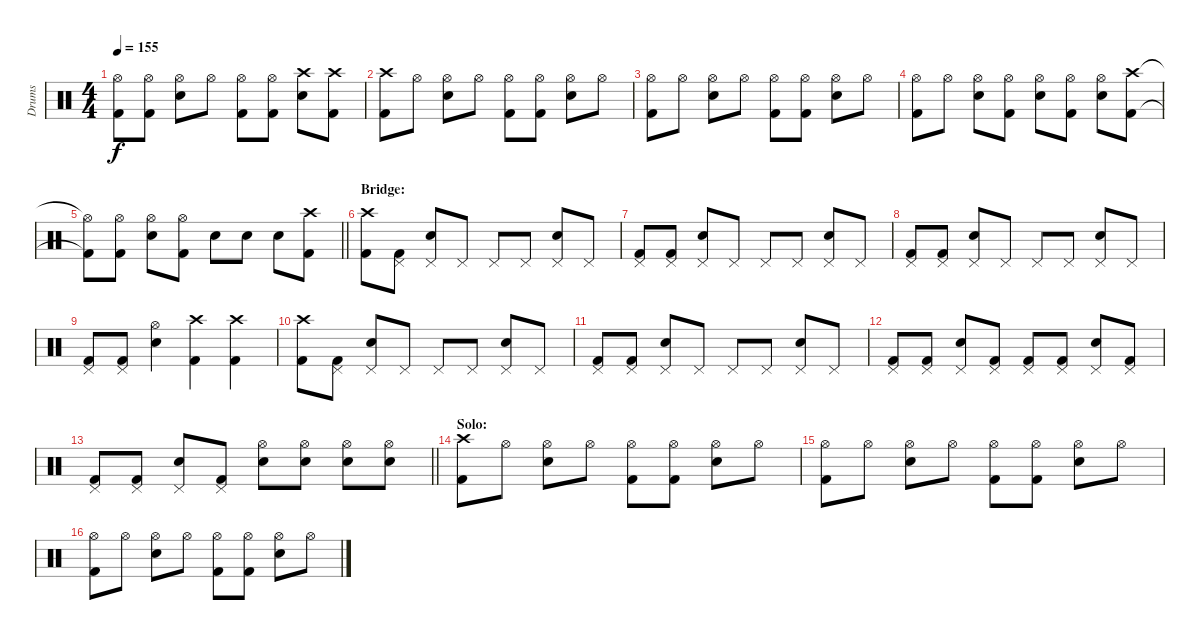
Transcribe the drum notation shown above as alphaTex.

\track ("Drums" "Drums") {instrument percussion}
\staff {score}
\articulation defaults
\ts (4 4)
\tempo 155
\clef neutral
\ks c
("Hi-Hat (open)"{t} "Kick (hit) 2"{t}).8{dy f} ("Hi-Hat (open)" "Kick (hit) 2").8 ("Hi-Hat (open)" "Electric Snare (hit)").8 "Hi-Hat (open)".8 ("Hi-Hat (open)" "Kick (hit) 2").8 ("Hi-Hat (open)" "Kick (hit) 2").8 ("Crash high (hit)" "Electric Snare (hit)").8 ("Crash high (hit)" "Kick (hit) 2").8 |
("Crash high (hit)" "Kick (hit) 2").8 "Hi-Hat (open)".8 ("Hi-Hat (open)" "Electric Snare (hit)").8 "Hi-Hat (open)".8 ("Hi-Hat (open)" "Kick (hit) 2").8 ("Hi-Hat (open)" "Kick (hit) 2").8 ("Hi-Hat (open)" "Electric Snare (hit)").8 "Hi-Hat (open)".8 |
("Hi-Hat (open)" "Kick (hit) 2").8 "Hi-Hat (open)".8 ("Hi-Hat (open)" "Electric Snare (hit)").8 "Hi-Hat (open)".8 ("Hi-Hat (open)" "Kick (hit) 2").8 ("Hi-Hat (open)" "Kick (hit) 2").8 ("Hi-Hat (open)" "Electric Snare (hit)").8 "Hi-Hat (open)".8 |
("Hi-Hat (open)" "Kick (hit) 2").8 "Hi-Hat (open)".8 ("Hi-Hat (open)" "Electric Snare (hit)").8 ("Hi-Hat (open)" "Kick (hit) 2").8 ("Hi-Hat (open)" "Electric Snare (hit)").8 ("Hi-Hat (open)" "Kick (hit) 2").8 ("Hi-Hat (open)" "Electric Snare (hit)").8 ("Crash high (hit)" "Kick (hit) 2").8 |
\barLineRight lightlight
("Hi-Hat (open)"{t} "Kick (hit) 2"{t}).8 ("Hi-Hat (open)" "Kick (hit) 2").8 ("Hi-Hat (open)" "Electric Snare (hit)").8 ("Hi-Hat (open)" "Kick (hit) 2").8 "Electric Snare (hit)".8 "Electric Snare (hit)".8 "Electric Snare (hit)".8 ("Crash high (hit)" "Kick (hit) 2").8 |
\section ("" "Bridge:")
("Crash high (hit)" "Kick (hit) 2").8 ("Pedal Hi-Hat (hit)" "Kick (hit) 2").8 ("Pedal Hi-Hat (hit)" "Electric Snare (hit)").8 "Pedal Hi-Hat (hit)".8 "Pedal Hi-Hat (hit)".8 "Pedal Hi-Hat (hit)".8 ("Pedal Hi-Hat (hit)" "Electric Snare (hit)").8 "Pedal Hi-Hat (hit)".8 |
("Pedal Hi-Hat (hit)" "Kick (hit) 2").8 ("Pedal Hi-Hat (hit)" "Kick (hit) 2").8 ("Pedal Hi-Hat (hit)" "Electric Snare (hit)").8 "Pedal Hi-Hat (hit)".8 "Pedal Hi-Hat (hit)".8 "Pedal Hi-Hat (hit)".8 ("Pedal Hi-Hat (hit)" "Electric Snare (hit)").8 "Pedal Hi-Hat (hit)".8 |
("Pedal Hi-Hat (hit)" "Kick (hit) 2").8 ("Pedal Hi-Hat (hit)" "Kick (hit) 2").8 ("Pedal Hi-Hat (hit)" "Electric Snare (hit)").8 "Pedal Hi-Hat (hit)".8 "Pedal Hi-Hat (hit)".8 "Pedal Hi-Hat (hit)".8 ("Pedal Hi-Hat (hit)" "Electric Snare (hit)").8 "Pedal Hi-Hat (hit)".8 |
("Pedal Hi-Hat (hit)" "Kick (hit) 2").8 ("Pedal Hi-Hat (hit)" "Kick (hit) 2").8 ("Hi-Hat (open)" "Electric Snare (hit)").4 ("Crash high (hit)" "Kick (hit) 2").4 ("Crash high (hit)" "Kick (hit) 2").4 |
("Crash high (hit)" "Kick (hit) 2").8 ("Pedal Hi-Hat (hit)" "Kick (hit) 2").8 ("Pedal Hi-Hat (hit)" "Electric Snare (hit)").8 "Pedal Hi-Hat (hit)".8 "Pedal Hi-Hat (hit)".8 "Pedal Hi-Hat (hit)".8 ("Pedal Hi-Hat (hit)" "Electric Snare (hit)").8 "Pedal Hi-Hat (hit)".8 |
("Pedal Hi-Hat (hit)" "Kick (hit) 2").8 ("Pedal Hi-Hat (hit)" "Kick (hit) 2").8 ("Pedal Hi-Hat (hit)" "Electric Snare (hit)").8 "Pedal Hi-Hat (hit)".8 "Pedal Hi-Hat (hit)".8 "Pedal Hi-Hat (hit)".8 ("Pedal Hi-Hat (hit)" "Electric Snare (hit)").8 "Pedal Hi-Hat (hit)".8 |
("Pedal Hi-Hat (hit)" "Kick (hit) 2").8 ("Pedal Hi-Hat (hit)" "Kick (hit) 2").8 ("Pedal Hi-Hat (hit)" "Electric Snare (hit)").8 ("Pedal Hi-Hat (hit)" "Kick (hit) 2").8 ("Pedal Hi-Hat (hit)" "Kick (hit) 2").8 ("Pedal Hi-Hat (hit)" "Kick (hit) 2").8 ("Pedal Hi-Hat (hit)" "Electric Snare (hit)").8 ("Pedal Hi-Hat (hit)" "Kick (hit) 2").8 |
\barLineRight lightlight
("Pedal Hi-Hat (hit)" "Kick (hit) 2").8 ("Pedal Hi-Hat (hit)" "Kick (hit) 2").8 ("Pedal Hi-Hat (hit)" "Electric Snare (hit)").8 ("Pedal Hi-Hat (hit)" "Kick (hit) 2").8 ("Hi-Hat (open)" "Electric Snare (hit)").8 ("Hi-Hat (open)" "Electric Snare (hit)").8 ("Hi-Hat (open)" "Electric Snare (hit)").8 ("Hi-Hat (open)" "Electric Snare (hit)").8 |
\section ("" "Solo:")
("Crash high (hit)" "Kick (hit) 2").8 "Hi-Hat (open)".8 ("Hi-Hat (open)" "Electric Snare (hit)").8 "Hi-Hat (open)".8 ("Hi-Hat (open)" "Kick (hit) 2").8 ("Hi-Hat (open)" "Kick (hit) 2").8 ("Hi-Hat (open)" "Electric Snare (hit)").8 "Hi-Hat (open)".8 |
("Hi-Hat (open)" "Kick (hit) 2").8 "Hi-Hat (open)".8 ("Hi-Hat (open)" "Electric Snare (hit)").8 "Hi-Hat (open)".8 ("Hi-Hat (open)" "Kick (hit) 2").8 ("Hi-Hat (open)" "Kick (hit) 2").8 ("Hi-Hat (open)" "Electric Snare (hit)").8 "Hi-Hat (open)".8 |
("Hi-Hat (open)" "Kick (hit) 2").8 "Hi-Hat (open)".8 ("Hi-Hat (open)" "Electric Snare (hit)").8 "Hi-Hat (open)".8 ("Hi-Hat (open)" "Kick (hit) 2").8 ("Hi-Hat (open)" "Kick (hit) 2").8 ("Hi-Hat (open)" "Electric Snare (hit)").8 "Hi-Hat (open)".8
